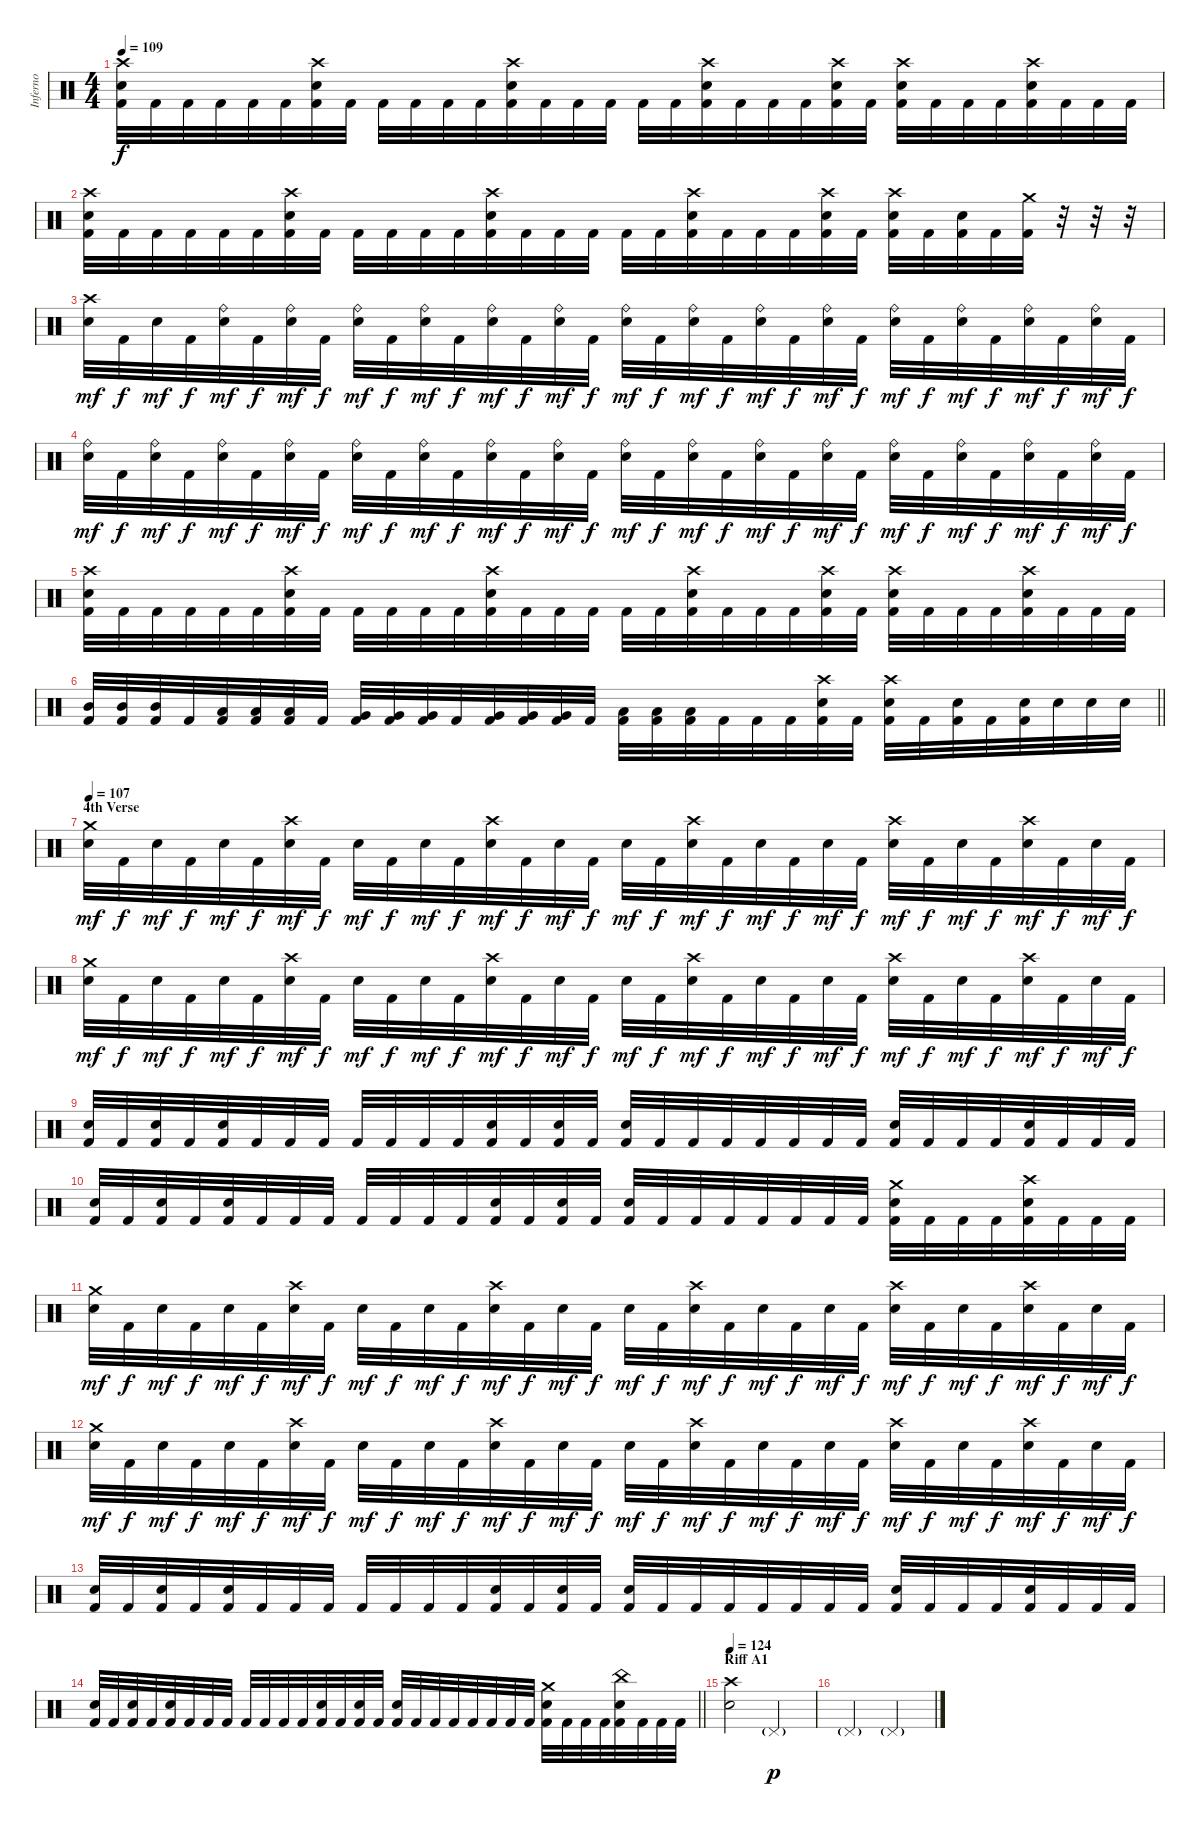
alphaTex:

\track ("Inferno" "Inferno") {instrument percussion}
\staff {score}
\articulation defaults
\ts (4 4)
\tempo 109
\clef neutral
\ks c
("Crash high (hit)" "Snare (hit) 2" "Kick (hit) 2").32{dy f} "Kick (hit) 2".32 "Kick (hit) 2".32 "Kick (hit) 2".32 "Kick (hit) 2".32 "Kick (hit) 2".32 ("Crash high (hit)" "Snare (hit) 2" "Kick (hit) 2").32 "Kick (hit) 2".32 "Kick (hit) 2".32 "Kick (hit) 2".32 "Kick (hit) 2".32 "Kick (hit) 2".32 ("Crash high (hit)" "Snare (hit) 2" "Kick (hit) 2").32 "Kick (hit) 2".32 "Kick (hit) 2".32 "Kick (hit) 2".32 "Kick (hit) 2".32 "Kick (hit) 2".32 ("Crash high (hit)" "Snare (hit) 2" "Kick (hit) 2").32 "Kick (hit) 2".32 "Kick (hit) 2".32 "Kick (hit) 2".32 ("Crash high (hit)" "Snare (hit) 2" "Kick (hit) 2").32 "Kick (hit) 2".32 ("Crash high (hit)" "Snare (hit) 2" "Kick (hit) 2").32 "Kick (hit) 2".32 "Kick (hit) 2".32 "Kick (hit) 2".32 ("Crash high (hit)" "Snare (hit) 2" "Kick (hit) 2").32 "Kick (hit) 2".32 "Kick (hit) 2".32 "Kick (hit) 2".32 |
("Crash high (hit)" "Snare (hit) 2" "Kick (hit) 2").32 "Kick (hit) 2".32 "Kick (hit) 2".32 "Kick (hit) 2".32 "Kick (hit) 2".32 "Kick (hit) 2".32 ("Crash high (hit)" "Snare (hit) 2" "Kick (hit) 2").32 "Kick (hit) 2".32 "Kick (hit) 2".32 "Kick (hit) 2".32 "Kick (hit) 2".32 "Kick (hit) 2".32 ("Crash high (hit)" "Snare (hit) 2" "Kick (hit) 2").32 "Kick (hit) 2".32 "Kick (hit) 2".32 "Kick (hit) 2".32 "Kick (hit) 2".32 "Kick (hit) 2".32 ("Crash high (hit)" "Snare (hit) 2" "Kick (hit) 2").32 "Kick (hit) 2".32 "Kick (hit) 2".32 "Kick (hit) 2".32 ("Crash high (hit)" "Snare (hit) 2" "Kick (hit) 2").32 "Kick (hit) 2".32 ("Crash high (hit)" "Snare (hit) 2" "Kick (hit) 2").32 "Kick (hit) 2".32 ("Snare (hit) 2" "Kick (hit) 2").32 "Kick (hit) 2".32 ("Crash medium (hit)" "Kick (hit) 2").32 r.32 r.32 r.32 |
("Crash high (hit)" "Snare (hit) 2").32{dy mf} "Kick (hit) 2".32{dy f} "Snare (hit) 2".32{dy mf} "Kick (hit) 2".32{dy f} ("Ride (bell)" "Snare (hit) 2").32{dy mf} "Kick (hit) 2".32{dy f} ("Ride (bell)" "Snare (hit) 2").32{dy mf} "Kick (hit) 2".32{dy f} ("Ride (bell)" "Snare (hit) 2").32{dy mf} "Kick (hit) 2".32{dy f} ("Ride (bell)" "Snare (hit) 2").32{dy mf} "Kick (hit) 2".32{dy f} ("Ride (bell)" "Snare (hit) 2").32{dy mf} "Kick (hit) 2".32{dy f} ("Ride (bell)" "Snare (hit) 2").32{dy mf} "Kick (hit) 2".32{dy f} ("Ride (bell)" "Snare (hit) 2").32{dy mf} "Kick (hit) 2".32{dy f} ("Ride (bell)" "Snare (hit) 2").32{dy mf} "Kick (hit) 2".32{dy f} ("Ride (bell)" "Snare (hit) 2").32{dy mf} "Kick (hit) 2".32{dy f} ("Ride (bell)" "Snare (hit) 2").32{dy mf} "Kick (hit) 2".32{dy f} ("Ride (bell)" "Snare (hit) 2").32{dy mf} "Kick (hit) 2".32{dy f} ("Ride (bell)" "Snare (hit) 2").32{dy mf} "Kick (hit) 2".32{dy f} ("Ride (bell)" "Snare (hit) 2").32{dy mf} "Kick (hit) 2".32{dy f} ("Ride (bell)" "Snare (hit) 2").32{dy mf} "Kick (hit) 2".32{dy f} |
("Ride (bell)" "Snare (hit) 2").32{dy mf} "Kick (hit) 2".32{dy f} ("Ride (bell)" "Snare (hit) 2").32{dy mf} "Kick (hit) 2".32{dy f} ("Ride (bell)" "Snare (hit) 2").32{dy mf} "Kick (hit) 2".32{dy f} ("Ride (bell)" "Snare (hit) 2").32{dy mf} "Kick (hit) 2".32{dy f} ("Ride (bell)" "Snare (hit) 2").32{dy mf} "Kick (hit) 2".32{dy f} ("Ride (bell)" "Snare (hit) 2").32{dy mf} "Kick (hit) 2".32{dy f} ("Ride (bell)" "Snare (hit) 2").32{dy mf} "Kick (hit) 2".32{dy f} ("Ride (bell)" "Snare (hit) 2").32{dy mf} "Kick (hit) 2".32{dy f} ("Ride (bell)" "Snare (hit) 2").32{dy mf} "Kick (hit) 2".32{dy f} ("Ride (bell)" "Snare (hit) 2").32{dy mf} "Kick (hit) 2".32{dy f} ("Ride (bell)" "Snare (hit) 2").32{dy mf} "Kick (hit) 2".32{dy f} ("Ride (bell)" "Snare (hit) 2").32{dy mf} "Kick (hit) 2".32{dy f} ("Ride (bell)" "Snare (hit) 2").32{dy mf} "Kick (hit) 2".32{dy f} ("Ride (bell)" "Snare (hit) 2").32{dy mf} "Kick (hit) 2".32{dy f} ("Ride (bell)" "Snare (hit) 2").32{dy mf} "Kick (hit) 2".32{dy f} ("Ride (bell)" "Snare (hit) 2").32{dy mf} "Kick (hit) 2".32{dy f} |
("Crash high (hit)" "Snare (hit) 2" "Kick (hit) 2").32 "Kick (hit) 2".32 "Kick (hit) 2".32 "Kick (hit) 2".32 "Kick (hit) 2".32 "Kick (hit) 2".32 ("Crash high (hit)" "Snare (hit) 2" "Kick (hit) 2").32 "Kick (hit) 2".32 "Kick (hit) 2".32 "Kick (hit) 2".32 "Kick (hit) 2".32 "Kick (hit) 2".32 ("Crash high (hit)" "Snare (hit) 2" "Kick (hit) 2").32 "Kick (hit) 2".32 "Kick (hit) 2".32 "Kick (hit) 2".32 "Kick (hit) 2".32 "Kick (hit) 2".32 ("Crash high (hit)" "Snare (hit) 2" "Kick (hit) 2").32 "Kick (hit) 2".32 "Kick (hit) 2".32 "Kick (hit) 2".32 ("Crash high (hit)" "Snare (hit) 2" "Kick (hit) 2").32 "Kick (hit) 2".32 ("Crash high (hit)" "Snare (hit) 2" "Kick (hit) 2").32 "Kick (hit) 2".32 "Kick (hit) 2".32 "Kick (hit) 2".32 ("Crash high (hit)" "Snare (hit) 2" "Kick (hit) 2").32 "Kick (hit) 2".32 "Kick (hit) 2".32 "Kick (hit) 2".32 |
\barLineRight lightlight
("Mid Tom (hit)" "Kick (hit) 2").32 ("Mid Tom (hit)" "Kick (hit) 2").32 ("Mid Tom (hit)" "Kick (hit) 2").32 "Kick (hit) 2".32 ("Low Tom (hit)" "Kick (hit) 2").32 ("Low Tom (hit)" "Kick (hit) 2").32 ("Low Tom (hit)" "Kick (hit) 2").32 "Kick (hit) 2".32 ("Very Low Tom (hit)" "Kick (hit) 2").32 ("Very Low Tom (hit)" "Kick (hit) 2").32 ("Very Low Tom (hit)" "Kick (hit) 2").32 "Kick (hit) 2".32 ("Very Low Tom (hit)" "Kick (hit) 2").32 ("Very Low Tom (hit)" "Kick (hit) 2").32 ("Very Low Tom (hit)" "Kick (hit) 2").32 "Kick (hit) 2".32 ("Low Floor Tom (hit)" "Kick (hit) 2").32 ("Low Floor Tom (hit)" "Kick (hit) 2").32 ("Low Floor Tom (hit)" "Kick (hit) 2").32 "Kick (hit) 2".32 "Kick (hit) 2".32 "Kick (hit) 2".32 ("Crash high (hit)" "Snare (hit) 2" "Kick (hit) 2").32 "Kick (hit) 2".32 ("Crash high (hit)" "Snare (hit) 2" "Kick (hit) 2").32 "Kick (hit) 2".32 ("Snare (hit) 2" "Kick (hit) 2").32 "Kick (hit) 2".32 ("Snare (hit) 2" "Kick (hit) 2").32 "Snare (hit) 2".32 "Snare (hit) 2".32 "Snare (hit) 2".32 |
\section ("" "4th Verse")
\tempo 107
("Crash medium (hit)" "Snare (hit) 2").32{dy mf} "Kick (hit) 2".32{dy f} "Snare (hit) 2".32{dy mf} "Kick (hit) 2".32{dy f} "Snare (hit) 2".32{dy mf} "Kick (hit) 2".32{dy f} ("Crash high (hit)" "Snare (hit) 2").32{dy mf} "Kick (hit) 2".32{dy f} "Snare (hit) 2".32{dy mf} "Kick (hit) 2".32{dy f} "Snare (hit) 2".32{dy mf} "Kick (hit) 2".32{dy f} ("Crash high (hit)" "Snare (hit) 2").32{dy mf} "Kick (hit) 2".32{dy f} "Snare (hit) 2".32{dy mf} "Kick (hit) 2".32{dy f} "Snare (hit) 2".32{dy mf} "Kick (hit) 2".32{dy f} ("Crash high (hit)" "Snare (hit) 2").32{dy mf} "Kick (hit) 2".32{dy f} "Snare (hit) 2".32{dy mf} "Kick (hit) 2".32{dy f} "Snare (hit) 2".32{dy mf} "Kick (hit) 2".32{dy f} ("Crash high (hit)" "Snare (hit) 2").32{dy mf} "Kick (hit) 2".32{dy f} "Snare (hit) 2".32{dy mf} "Kick (hit) 2".32{dy f} ("Crash high (hit)" "Snare (hit) 2").32{dy mf} "Kick (hit) 2".32{dy f} "Snare (hit) 2".32{dy mf} "Kick (hit) 2".32{dy f} |
("Crash medium (hit)" "Snare (hit) 2").32{dy mf} "Kick (hit) 2".32{dy f} "Snare (hit) 2".32{dy mf} "Kick (hit) 2".32{dy f} "Snare (hit) 2".32{dy mf} "Kick (hit) 2".32{dy f} ("Crash high (hit)" "Snare (hit) 2").32{dy mf} "Kick (hit) 2".32{dy f} "Snare (hit) 2".32{dy mf} "Kick (hit) 2".32{dy f} "Snare (hit) 2".32{dy mf} "Kick (hit) 2".32{dy f} ("Crash high (hit)" "Snare (hit) 2").32{dy mf} "Kick (hit) 2".32{dy f} "Snare (hit) 2".32{dy mf} "Kick (hit) 2".32{dy f} "Snare (hit) 2".32{dy mf} "Kick (hit) 2".32{dy f} ("Crash high (hit)" "Snare (hit) 2").32{dy mf} "Kick (hit) 2".32{dy f} "Snare (hit) 2".32{dy mf} "Kick (hit) 2".32{dy f} "Snare (hit) 2".32{dy mf} "Kick (hit) 2".32{dy f} ("Crash high (hit)" "Snare (hit) 2").32{dy mf} "Kick (hit) 2".32{dy f} "Snare (hit) 2".32{dy mf} "Kick (hit) 2".32{dy f} ("Crash high (hit)" "Snare (hit) 2").32{dy mf} "Kick (hit) 2".32{dy f} "Snare (hit) 2".32{dy mf} "Kick (hit) 2".32{dy f} |
("Snare (hit) 2" "Kick (hit) 2").32 "Kick (hit) 2".32 ("Snare (hit) 2" "Kick (hit) 2").32 "Kick (hit) 2".32 ("Snare (hit) 2" "Kick (hit) 2").32 "Kick (hit) 2".32 "Kick (hit) 2".32 "Kick (hit) 2".32 "Kick (hit) 2".32 "Kick (hit) 2".32 "Kick (hit) 2".32 "Kick (hit) 2".32 ("Snare (hit) 2" "Kick (hit) 2").32 "Kick (hit) 2".32 ("Snare (hit) 2" "Kick (hit) 2").32 "Kick (hit) 2".32 ("Snare (hit) 2" "Kick (hit) 2").32 "Kick (hit) 2".32 "Kick (hit) 2".32 "Kick (hit) 2".32 "Kick (hit) 2".32 "Kick (hit) 2".32 "Kick (hit) 2".32 "Kick (hit) 2".32 ("Snare (hit) 2" "Kick (hit) 2").32 "Kick (hit) 2".32 "Kick (hit) 2".32 "Kick (hit) 2".32 ("Snare (hit) 2" "Kick (hit) 2").32 "Kick (hit) 2".32 "Kick (hit) 2".32 "Kick (hit) 2".32 |
("Snare (hit) 2" "Kick (hit) 2").32 "Kick (hit) 2".32 ("Snare (hit) 2" "Kick (hit) 2").32 "Kick (hit) 2".32 ("Snare (hit) 2" "Kick (hit) 2").32 "Kick (hit) 2".32 "Kick (hit) 2".32 "Kick (hit) 2".32 "Kick (hit) 2".32 "Kick (hit) 2".32 "Kick (hit) 2".32 "Kick (hit) 2".32 ("Snare (hit) 2" "Kick (hit) 2").32 "Kick (hit) 2".32 ("Snare (hit) 2" "Kick (hit) 2").32 "Kick (hit) 2".32 ("Snare (hit) 2" "Kick (hit) 2").32 "Kick (hit) 2".32 "Kick (hit) 2".32 "Kick (hit) 2".32 "Kick (hit) 2".32 "Kick (hit) 2".32 "Kick (hit) 2".32 "Kick (hit) 2".32 ("Crash medium (hit)" "Snare (hit) 2" "Kick (hit) 2").32 "Kick (hit) 2".32 "Kick (hit) 2".32 "Kick (hit) 2".32 ("Crash high (hit)" "Snare (hit) 2" "Kick (hit) 2").32 "Kick (hit) 2".32 "Kick (hit) 2".32 "Kick (hit) 2".32 |
("Crash medium (hit)" "Snare (hit) 2").32{dy mf} "Kick (hit) 2".32{dy f} "Snare (hit) 2".32{dy mf} "Kick (hit) 2".32{dy f} "Snare (hit) 2".32{dy mf} "Kick (hit) 2".32{dy f} ("Crash high (hit)" "Snare (hit) 2").32{dy mf} "Kick (hit) 2".32{dy f} "Snare (hit) 2".32{dy mf} "Kick (hit) 2".32{dy f} "Snare (hit) 2".32{dy mf} "Kick (hit) 2".32{dy f} ("Crash high (hit)" "Snare (hit) 2").32{dy mf} "Kick (hit) 2".32{dy f} "Snare (hit) 2".32{dy mf} "Kick (hit) 2".32{dy f} "Snare (hit) 2".32{dy mf} "Kick (hit) 2".32{dy f} ("Crash high (hit)" "Snare (hit) 2").32{dy mf} "Kick (hit) 2".32{dy f} "Snare (hit) 2".32{dy mf} "Kick (hit) 2".32{dy f} "Snare (hit) 2".32{dy mf} "Kick (hit) 2".32{dy f} ("Crash high (hit)" "Snare (hit) 2").32{dy mf} "Kick (hit) 2".32{dy f} "Snare (hit) 2".32{dy mf} "Kick (hit) 2".32{dy f} ("Crash high (hit)" "Snare (hit) 2").32{dy mf} "Kick (hit) 2".32{dy f} "Snare (hit) 2".32{dy mf} "Kick (hit) 2".32{dy f} |
("Crash medium (hit)" "Snare (hit) 2").32{dy mf} "Kick (hit) 2".32{dy f} "Snare (hit) 2".32{dy mf} "Kick (hit) 2".32{dy f} "Snare (hit) 2".32{dy mf} "Kick (hit) 2".32{dy f} ("Crash high (hit)" "Snare (hit) 2").32{dy mf} "Kick (hit) 2".32{dy f} "Snare (hit) 2".32{dy mf} "Kick (hit) 2".32{dy f} "Snare (hit) 2".32{dy mf} "Kick (hit) 2".32{dy f} ("Crash high (hit)" "Snare (hit) 2").32{dy mf} "Kick (hit) 2".32{dy f} "Snare (hit) 2".32{dy mf} "Kick (hit) 2".32{dy f} "Snare (hit) 2".32{dy mf} "Kick (hit) 2".32{dy f} ("Crash high (hit)" "Snare (hit) 2").32{dy mf} "Kick (hit) 2".32{dy f} "Snare (hit) 2".32{dy mf} "Kick (hit) 2".32{dy f} "Snare (hit) 2".32{dy mf} "Kick (hit) 2".32{dy f} ("Crash high (hit)" "Snare (hit) 2").32{dy mf} "Kick (hit) 2".32{dy f} "Snare (hit) 2".32{dy mf} "Kick (hit) 2".32{dy f} ("Crash high (hit)" "Snare (hit) 2").32{dy mf} "Kick (hit) 2".32{dy f} "Snare (hit) 2".32{dy mf} "Kick (hit) 2".32{dy f} |
("Snare (hit) 2" "Kick (hit) 2").32 "Kick (hit) 2".32 ("Snare (hit) 2" "Kick (hit) 2").32 "Kick (hit) 2".32 ("Snare (hit) 2" "Kick (hit) 2").32 "Kick (hit) 2".32 "Kick (hit) 2".32 "Kick (hit) 2".32 "Kick (hit) 2".32 "Kick (hit) 2".32 "Kick (hit) 2".32 "Kick (hit) 2".32 ("Snare (hit) 2" "Kick (hit) 2").32 "Kick (hit) 2".32 ("Snare (hit) 2" "Kick (hit) 2").32 "Kick (hit) 2".32 ("Snare (hit) 2" "Kick (hit) 2").32 "Kick (hit) 2".32 "Kick (hit) 2".32 "Kick (hit) 2".32 "Kick (hit) 2".32 "Kick (hit) 2".32 "Kick (hit) 2".32 "Kick (hit) 2".32 ("Snare (hit) 2" "Kick (hit) 2").32 "Kick (hit) 2".32 "Kick (hit) 2".32 "Kick (hit) 2".32 ("Snare (hit) 2" "Kick (hit) 2").32 "Kick (hit) 2".32 "Kick (hit) 2".32 "Kick (hit) 2".32 |
\barLineRight lightlight
("Snare (hit) 2" "Kick (hit) 2").32 "Kick (hit) 2".32 ("Snare (hit) 2" "Kick (hit) 2").32 "Kick (hit) 2".32 ("Snare (hit) 2" "Kick (hit) 2").32 "Kick (hit) 2".32 "Kick (hit) 2".32 "Kick (hit) 2".32 "Kick (hit) 2".32 "Kick (hit) 2".32 "Kick (hit) 2".32 "Kick (hit) 2".32 ("Snare (hit) 2" "Kick (hit) 2").32 "Kick (hit) 2".32 ("Snare (hit) 2" "Kick (hit) 2").32 "Kick (hit) 2".32 ("Snare (hit) 2" "Kick (hit) 2").32 "Kick (hit) 2".32 "Kick (hit) 2".32 "Kick (hit) 2".32 "Kick (hit) 2".32 "Kick (hit) 2".32 "Kick (hit) 2".32 "Kick (hit) 2".32 ("Crash medium (hit)" "Snare (hit) 2" "Kick (hit) 2").32 "Kick (hit) 2".32 "Kick (hit) 2".32 "Kick (hit) 2".32 ("China (hit)" "Snare (hit) 2" "Kick (hit) 2").32 "Kick (hit) 2".32 "Kick (hit) 2".32 "Kick (hit) 2".32 |
\section ("" "Riff A1")
\tempo 124
("Crash high (hit)" "Snare (hit) 2").2 "Pedal Hi-Hat (hit)"{g}.2{dy p} |
"Pedal Hi-Hat (hit)"{g}.2 "Pedal Hi-Hat (hit)"{g}.2
